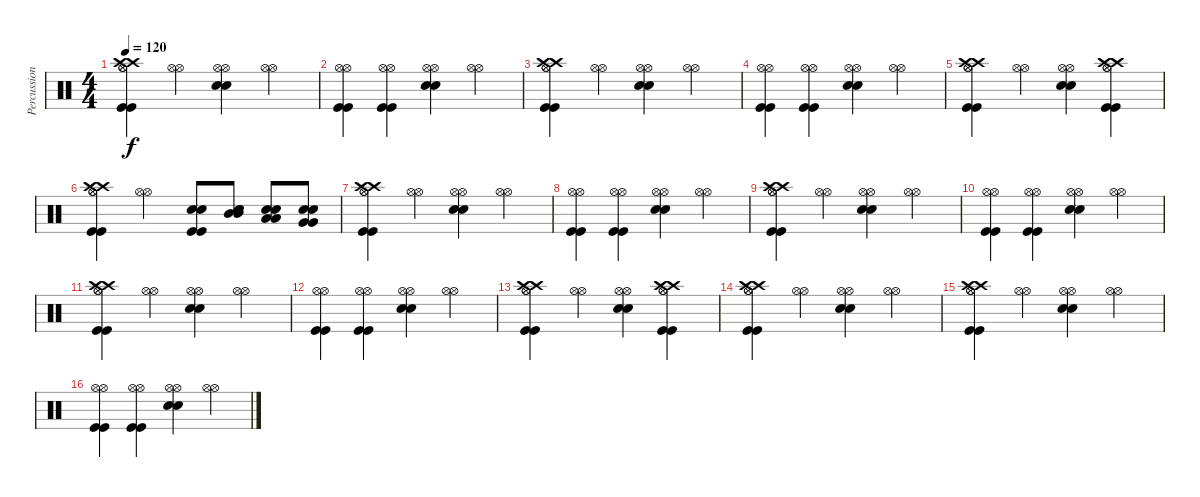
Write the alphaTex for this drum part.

\track ("Percussion" "Percussion") {instrument percussion}
\staff {score}
\articulation defaults
\ts (4 4)
\tempo 120
\clef neutral
\ks c
("Hi-Hat (open)" "Hi-Hat (open)" "Kick (hit)" "Kick (hit)" "Crash high (hit)" "Crash high (hit)").4{dy f} ("Hi-Hat (open)" "Hi-Hat (open)").4 ("Hi-Hat (open)" "Hi-Hat (open)" "Electric Snare (hit)" "Electric Snare (hit)").4 ("Hi-Hat (open)" "Hi-Hat (open)").4 |
("Hi-Hat (open)" "Hi-Hat (open)" "Kick (hit)" "Kick (hit)").4 ("Hi-Hat (open)" "Hi-Hat (open)" "Kick (hit)" "Kick (hit)").4 ("Hi-Hat (open)" "Hi-Hat (open)" "Electric Snare (hit)" "Electric Snare (hit)").4 ("Hi-Hat (open)" "Hi-Hat (open)").4 |
("Hi-Hat (open)" "Hi-Hat (open)" "Kick (hit)" "Kick (hit)" "Crash high (hit)" "Crash high (hit)").4 ("Hi-Hat (open)" "Hi-Hat (open)").4 ("Hi-Hat (open)" "Hi-Hat (open)" "Electric Snare (hit)" "Electric Snare (hit)").4 ("Hi-Hat (open)" "Hi-Hat (open)").4 |
("Hi-Hat (open)" "Hi-Hat (open)" "Kick (hit)" "Kick (hit)").4 ("Hi-Hat (open)" "Hi-Hat (open)" "Kick (hit)" "Kick (hit)").4 ("Hi-Hat (open)" "Hi-Hat (open)" "Electric Snare (hit)" "Electric Snare (hit)").4 ("Hi-Hat (open)" "Hi-Hat (open)").4 |
("Hi-Hat (open)" "Hi-Hat (open)" "Kick (hit)" "Kick (hit)" "Crash high (hit)" "Crash high (hit)").4 ("Hi-Hat (open)" "Hi-Hat (open)").4 ("Hi-Hat (open)" "Hi-Hat (open)" "Electric Snare (hit)" "Electric Snare (hit)").4 ("Hi-Hat (open)" "Hi-Hat (open)" "Kick (hit)" "Kick (hit)" "Crash high (hit)" "Crash high (hit)").4 |
("Hi-Hat (open)" "Hi-Hat (open)" "Kick (hit)" "Kick (hit)" "Crash high (hit)" "Crash high (hit)").4 ("Hi-Hat (open)" "Hi-Hat (open)").4 ("Kick (hit)" "Kick (hit)" "Electric Snare (hit)" "Electric Snare (hit)").8 ("Mid Tom (hit)" "Mid Tom (hit)" "Electric Snare (hit)" "Electric Snare (hit)").8 ("Low Tom (hit)" "Low Tom (hit)" "Electric Snare (hit)" "Electric Snare (hit)").8 ("Very Low Tom (hit)" "Very Low Tom (hit)" "Electric Snare (hit)" "Electric Snare (hit)").8 |
("Hi-Hat (open)" "Hi-Hat (open)" "Kick (hit)" "Kick (hit)" "Crash high (hit)" "Crash high (hit)").4 ("Hi-Hat (open)" "Hi-Hat (open)").4 ("Hi-Hat (open)" "Hi-Hat (open)" "Electric Snare (hit)" "Electric Snare (hit)").4 ("Hi-Hat (open)" "Hi-Hat (open)").4 |
("Hi-Hat (open)" "Hi-Hat (open)" "Kick (hit)" "Kick (hit)").4 ("Hi-Hat (open)" "Hi-Hat (open)" "Kick (hit)" "Kick (hit)").4 ("Hi-Hat (open)" "Hi-Hat (open)" "Electric Snare (hit)" "Electric Snare (hit)").4 ("Hi-Hat (open)" "Hi-Hat (open)").4 |
("Hi-Hat (open)" "Hi-Hat (open)" "Kick (hit)" "Kick (hit)" "Crash high (hit)" "Crash high (hit)").4 ("Hi-Hat (open)" "Hi-Hat (open)").4 ("Hi-Hat (open)" "Hi-Hat (open)" "Electric Snare (hit)" "Electric Snare (hit)").4 ("Hi-Hat (open)" "Hi-Hat (open)").4 |
("Hi-Hat (open)" "Hi-Hat (open)" "Kick (hit)" "Kick (hit)").4 ("Hi-Hat (open)" "Hi-Hat (open)" "Kick (hit)" "Kick (hit)").4 ("Hi-Hat (open)" "Hi-Hat (open)" "Electric Snare (hit)" "Electric Snare (hit)").4 ("Hi-Hat (open)" "Hi-Hat (open)").4 |
("Hi-Hat (open)" "Hi-Hat (open)" "Kick (hit)" "Kick (hit)" "Crash high (hit)" "Crash high (hit)").4 ("Hi-Hat (open)" "Hi-Hat (open)").4 ("Hi-Hat (open)" "Hi-Hat (open)" "Electric Snare (hit)" "Electric Snare (hit)").4 ("Hi-Hat (open)" "Hi-Hat (open)").4 |
("Hi-Hat (open)" "Hi-Hat (open)" "Kick (hit)" "Kick (hit)").4 ("Hi-Hat (open)" "Hi-Hat (open)" "Kick (hit)" "Kick (hit)").4 ("Hi-Hat (open)" "Hi-Hat (open)" "Electric Snare (hit)" "Electric Snare (hit)").4 ("Hi-Hat (open)" "Hi-Hat (open)").4 |
("Hi-Hat (open)" "Hi-Hat (open)" "Kick (hit)" "Kick (hit)" "Crash high (hit)" "Crash high (hit)").4 ("Hi-Hat (open)" "Hi-Hat (open)").4 ("Hi-Hat (open)" "Hi-Hat (open)" "Electric Snare (hit)" "Electric Snare (hit)").4 ("Hi-Hat (open)" "Hi-Hat (open)" "Kick (hit)" "Kick (hit)" "Crash high (hit)" "Crash high (hit)").4 |
("Hi-Hat (open)" "Hi-Hat (open)" "Kick (hit)" "Kick (hit)" "Crash high (hit)" "Crash high (hit)").4 ("Hi-Hat (open)" "Hi-Hat (open)").4 ("Hi-Hat (open)" "Hi-Hat (open)" "Electric Snare (hit)" "Electric Snare (hit)").4 ("Hi-Hat (open)" "Hi-Hat (open)").4 |
("Hi-Hat (open)" "Hi-Hat (open)" "Kick (hit)" "Kick (hit)" "Crash high (hit)" "Crash high (hit)").4 ("Hi-Hat (open)" "Hi-Hat (open)").4 ("Hi-Hat (open)" "Hi-Hat (open)" "Electric Snare (hit)" "Electric Snare (hit)").4 ("Hi-Hat (open)" "Hi-Hat (open)").4 |
("Hi-Hat (open)" "Hi-Hat (open)" "Kick (hit)" "Kick (hit)").4 ("Hi-Hat (open)" "Hi-Hat (open)" "Kick (hit)" "Kick (hit)").4 ("Hi-Hat (open)" "Hi-Hat (open)" "Electric Snare (hit)" "Electric Snare (hit)").4 ("Hi-Hat (open)" "Hi-Hat (open)").4
